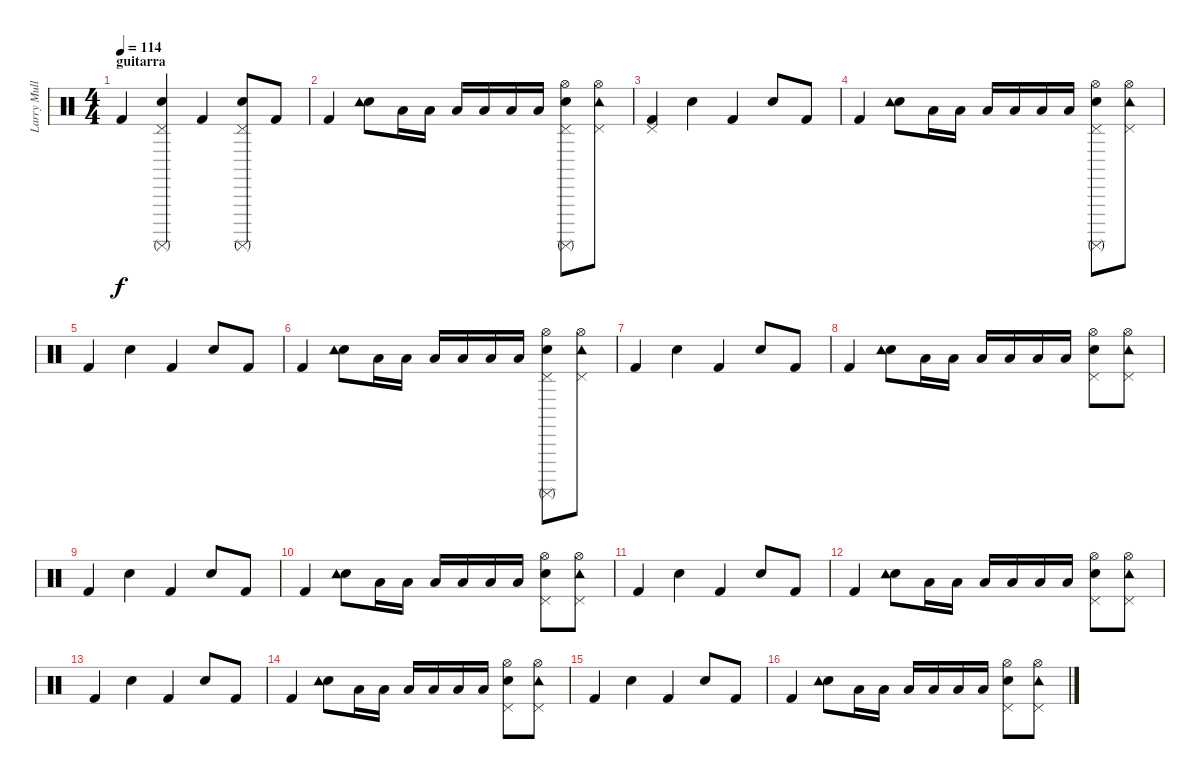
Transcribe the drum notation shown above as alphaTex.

\track ("Larry Mullen Jr Drums" "Larry Mull") {instrument percussion}
\staff {score}
\articulation defaults
\ts (4 4)
\section ("" "guitarra")
\tempo 114
\clef neutral
\ks c "Kick (hit) 2".4{dy f volume 7}
("Snare (hit) 2" "Surdo (mute)" "Pedal Hi-Hat (hit)").4 "Kick (hit) 2".4 ("Snare (hit) 2" "Surdo (mute)" "Pedal Hi-Hat (hit)").8 "Kick (hit) 2".8 |
"Kick (hit) 2".4 ("Snare (hit) 2" "Tambourine (hit)").8 "Low Tom (hit)".16 "Low Tom (hit)".16 "Low Tom (hit)".16 "Low Tom (hit)".16 "Low Tom (hit)".16 "Low Tom (hit)".16 ("Snare (hit) 2" "Pedal Hi-Hat (hit)" "Hi-Hat (open)" "Surdo (mute)").8 ("Hi-Hat (open)" "Pedal Hi-Hat (hit)" "Tambourine (hit)").8 |
("Kick (hit) 2" "Pedal Hi-Hat (hit)").4 "Snare (hit) 2".4 "Kick (hit) 2".4 "Snare (hit) 2".8 "Kick (hit) 2".8 |
"Kick (hit) 2".4 ("Snare (hit) 2" "Tambourine (hit)").8 "Low Tom (hit)".16 "Low Tom (hit)".16 "Low Tom (hit)".16 "Low Tom (hit)".16 "Low Tom (hit)".16 "Low Tom (hit)".16 ("Snare (hit) 2" "Pedal Hi-Hat (hit)" "Hi-Hat (open)" "Surdo (mute)").8 ("Hi-Hat (open)" "Pedal Hi-Hat (hit)" "Tambourine (hit)").8 |
"Kick (hit) 2".4 "Snare (hit) 2".4 "Kick (hit) 2".4 "Snare (hit) 2".8 "Kick (hit) 2".8 |
"Kick (hit) 2".4 ("Snare (hit) 2" "Tambourine (hit)").8 "Low Tom (hit)".16 "Low Tom (hit)".16 "Low Tom (hit)".16 "Low Tom (hit)".16 "Low Tom (hit)".16 "Low Tom (hit)".16 ("Snare (hit) 2" "Pedal Hi-Hat (hit)" "Hi-Hat (open)" "Surdo (mute)").8 ("Hi-Hat (open)" "Pedal Hi-Hat (hit)" "Tambourine (hit)").8 |
"Kick (hit) 2".4 "Snare (hit) 2".4 "Kick (hit) 2".4 "Snare (hit) 2".8 "Kick (hit) 2".8 |
"Kick (hit) 2".4 ("Snare (hit) 2" "Tambourine (hit)").8 "Low Tom (hit)".16 "Low Tom (hit)".16 "Low Tom (hit)".16 "Low Tom (hit)".16 "Low Tom (hit)".16 "Low Tom (hit)".16 ("Snare (hit) 2" "Pedal Hi-Hat (hit)" "Hi-Hat (open)").8 ("Hi-Hat (open)" "Pedal Hi-Hat (hit)" "Tambourine (hit)").8 |
"Kick (hit) 2".4 "Snare (hit) 2".4 "Kick (hit) 2".4 "Snare (hit) 2".8 "Kick (hit) 2".8 |
"Kick (hit) 2".4 ("Snare (hit) 2" "Tambourine (hit)").8 "Low Tom (hit)".16 "Low Tom (hit)".16 "Low Tom (hit)".16 "Low Tom (hit)".16 "Low Tom (hit)".16 "Low Tom (hit)".16 ("Snare (hit) 2" "Pedal Hi-Hat (hit)" "Hi-Hat (open)").8 ("Hi-Hat (open)" "Pedal Hi-Hat (hit)" "Tambourine (hit)").8 |
"Kick (hit) 2".4 "Snare (hit) 2".4 "Kick (hit) 2".4 "Snare (hit) 2".8 "Kick (hit) 2".8 |
"Kick (hit) 2".4 ("Snare (hit) 2" "Tambourine (hit)").8 "Low Tom (hit)".16 "Low Tom (hit)".16 "Low Tom (hit)".16 "Low Tom (hit)".16 "Low Tom (hit)".16 "Low Tom (hit)".16 ("Snare (hit) 2" "Pedal Hi-Hat (hit)" "Hi-Hat (open)").8 ("Hi-Hat (open)" "Pedal Hi-Hat (hit)" "Tambourine (hit)").8 |
"Kick (hit) 2".4 "Snare (hit) 2".4 "Kick (hit) 2".4 "Snare (hit) 2".8 "Kick (hit) 2".8 |
"Kick (hit) 2".4 ("Snare (hit) 2" "Tambourine (hit)").8 "Low Tom (hit)".16 "Low Tom (hit)".16 "Low Tom (hit)".16 "Low Tom (hit)".16 "Low Tom (hit)".16 "Low Tom (hit)".16 ("Snare (hit) 2" "Pedal Hi-Hat (hit)" "Hi-Hat (open)").8 ("Hi-Hat (open)" "Pedal Hi-Hat (hit)" "Tambourine (hit)").8 |
"Kick (hit) 2".4 "Snare (hit) 2".4 "Kick (hit) 2".4 "Snare (hit) 2".8 "Kick (hit) 2".8 |
"Kick (hit) 2".4 ("Snare (hit) 2" "Tambourine (hit)").8 "Low Tom (hit)".16 "Low Tom (hit)".16 "Low Tom (hit)".16 "Low Tom (hit)".16 "Low Tom (hit)".16 "Low Tom (hit)".16 ("Snare (hit) 2" "Pedal Hi-Hat (hit)" "Hi-Hat (open)").8 ("Hi-Hat (open)" "Pedal Hi-Hat (hit)" "Tambourine (hit)").8
